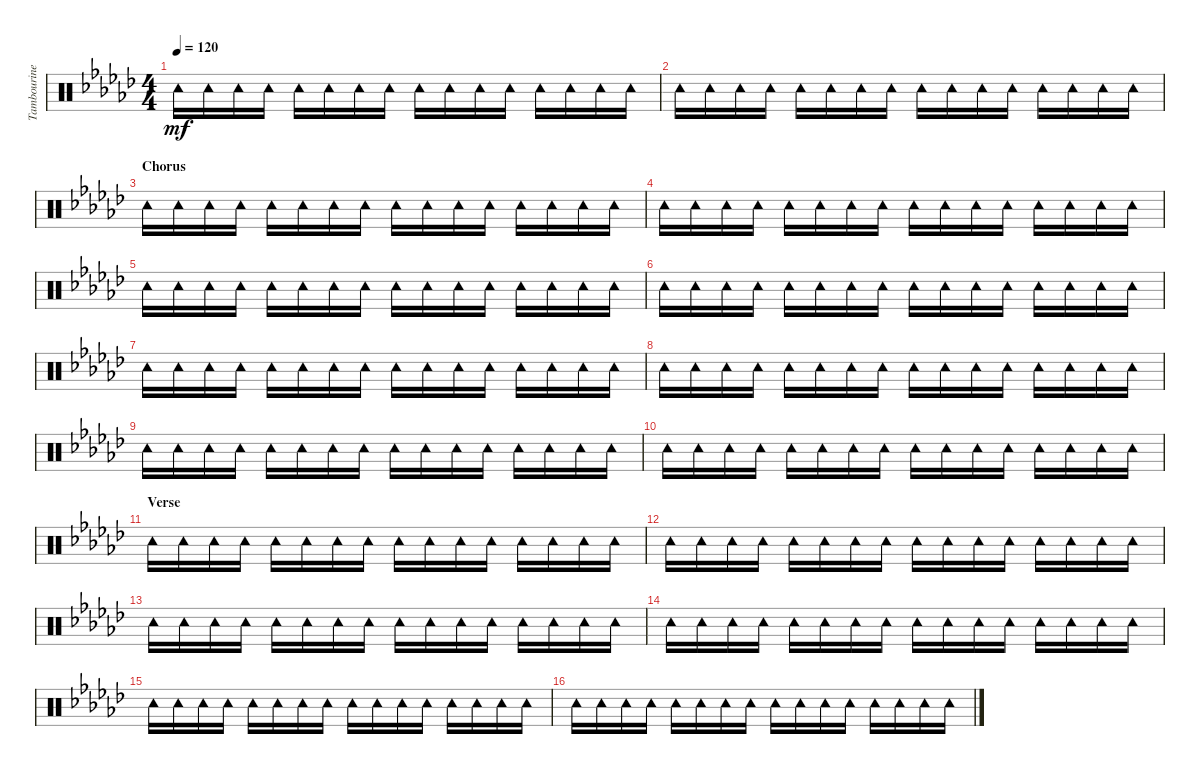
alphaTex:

\track ("Tambourine" "Tambourine") {instrument percussion}
\staff {score}
\articulation defaults
\ts (4 4)
\tempo 120
\clef neutral
\ks ebminor "Tambourine (hit)".16{dy mf} "Tambourine (hit)".16 "Tambourine (hit)".16 "Tambourine (hit)".16 "Tambourine (hit)".16 "Tambourine (hit)".16 "Tambourine (hit)".16 "Tambourine (hit)".16 "Tambourine (hit)".16 "Tambourine (hit)".16 "Tambourine (hit)".16 "Tambourine (hit)".16 "Tambourine (hit)".16 "Tambourine (hit)".16 "Tambourine (hit)".16 "Tambourine (hit)".16
|
"Tambourine (hit)".16 "Tambourine (hit)".16 "Tambourine (hit)".16 "Tambourine (hit)".16 "Tambourine (hit)".16 "Tambourine (hit)".16 "Tambourine (hit)".16 "Tambourine (hit)".16 "Tambourine (hit)".16 "Tambourine (hit)".16 "Tambourine (hit)".16 "Tambourine (hit)".16 "Tambourine (hit)".16 "Tambourine (hit)".16 "Tambourine (hit)".16 "Tambourine (hit)".16 |
\section ("" "Chorus")
"Tambourine (hit)".16 "Tambourine (hit)".16 "Tambourine (hit)".16 "Tambourine (hit)".16 "Tambourine (hit)".16 "Tambourine (hit)".16 "Tambourine (hit)".16 "Tambourine (hit)".16 "Tambourine (hit)".16 "Tambourine (hit)".16 "Tambourine (hit)".16 "Tambourine (hit)".16 "Tambourine (hit)".16 "Tambourine (hit)".16 "Tambourine (hit)".16 "Tambourine (hit)".16 |
"Tambourine (hit)".16 "Tambourine (hit)".16 "Tambourine (hit)".16 "Tambourine (hit)".16 "Tambourine (hit)".16 "Tambourine (hit)".16 "Tambourine (hit)".16 "Tambourine (hit)".16 "Tambourine (hit)".16 "Tambourine (hit)".16 "Tambourine (hit)".16 "Tambourine (hit)".16 "Tambourine (hit)".16 "Tambourine (hit)".16 "Tambourine (hit)".16 "Tambourine (hit)".16 |
"Tambourine (hit)".16 "Tambourine (hit)".16 "Tambourine (hit)".16 "Tambourine (hit)".16 "Tambourine (hit)".16 "Tambourine (hit)".16 "Tambourine (hit)".16 "Tambourine (hit)".16 "Tambourine (hit)".16 "Tambourine (hit)".16 "Tambourine (hit)".16 "Tambourine (hit)".16 "Tambourine (hit)".16 "Tambourine (hit)".16 "Tambourine (hit)".16 "Tambourine (hit)".16 |
"Tambourine (hit)".16 "Tambourine (hit)".16 "Tambourine (hit)".16 "Tambourine (hit)".16 "Tambourine (hit)".16 "Tambourine (hit)".16 "Tambourine (hit)".16 "Tambourine (hit)".16 "Tambourine (hit)".16 "Tambourine (hit)".16 "Tambourine (hit)".16 "Tambourine (hit)".16 "Tambourine (hit)".16 "Tambourine (hit)".16 "Tambourine (hit)".16 "Tambourine (hit)".16 |
"Tambourine (hit)".16 "Tambourine (hit)".16 "Tambourine (hit)".16 "Tambourine (hit)".16 "Tambourine (hit)".16 "Tambourine (hit)".16 "Tambourine (hit)".16 "Tambourine (hit)".16 "Tambourine (hit)".16 "Tambourine (hit)".16 "Tambourine (hit)".16 "Tambourine (hit)".16 "Tambourine (hit)".16 "Tambourine (hit)".16 "Tambourine (hit)".16 "Tambourine (hit)".16 |
"Tambourine (hit)".16 "Tambourine (hit)".16 "Tambourine (hit)".16 "Tambourine (hit)".16 "Tambourine (hit)".16 "Tambourine (hit)".16 "Tambourine (hit)".16 "Tambourine (hit)".16 "Tambourine (hit)".16 "Tambourine (hit)".16 "Tambourine (hit)".16 "Tambourine (hit)".16 "Tambourine (hit)".16 "Tambourine (hit)".16 "Tambourine (hit)".16 "Tambourine (hit)".16 |
"Tambourine (hit)".16 "Tambourine (hit)".16 "Tambourine (hit)".16 "Tambourine (hit)".16 "Tambourine (hit)".16 "Tambourine (hit)".16 "Tambourine (hit)".16 "Tambourine (hit)".16 "Tambourine (hit)".16 "Tambourine (hit)".16 "Tambourine (hit)".16 "Tambourine (hit)".16 "Tambourine (hit)".16 "Tambourine (hit)".16 "Tambourine (hit)".16 "Tambourine (hit)".16 |
"Tambourine (hit)".16 "Tambourine (hit)".16 "Tambourine (hit)".16 "Tambourine (hit)".16 "Tambourine (hit)".16 "Tambourine (hit)".16 "Tambourine (hit)".16 "Tambourine (hit)".16 "Tambourine (hit)".16 "Tambourine (hit)".16 "Tambourine (hit)".16 "Tambourine (hit)".16 "Tambourine (hit)".16 "Tambourine (hit)".16 "Tambourine (hit)".16 "Tambourine (hit)".16 |
\section ("" "Verse")
"Tambourine (hit)".16 "Tambourine (hit)".16 "Tambourine (hit)".16 "Tambourine (hit)".16 "Tambourine (hit)".16 "Tambourine (hit)".16 "Tambourine (hit)".16 "Tambourine (hit)".16 "Tambourine (hit)".16 "Tambourine (hit)".16 "Tambourine (hit)".16 "Tambourine (hit)".16 "Tambourine (hit)".16 "Tambourine (hit)".16 "Tambourine (hit)".16 "Tambourine (hit)".16 |
"Tambourine (hit)".16 "Tambourine (hit)".16 "Tambourine (hit)".16 "Tambourine (hit)".16 "Tambourine (hit)".16 "Tambourine (hit)".16 "Tambourine (hit)".16 "Tambourine (hit)".16 "Tambourine (hit)".16 "Tambourine (hit)".16 "Tambourine (hit)".16 "Tambourine (hit)".16 "Tambourine (hit)".16 "Tambourine (hit)".16 "Tambourine (hit)".16 "Tambourine (hit)".16 |
"Tambourine (hit)".16 "Tambourine (hit)".16 "Tambourine (hit)".16 "Tambourine (hit)".16 "Tambourine (hit)".16 "Tambourine (hit)".16 "Tambourine (hit)".16 "Tambourine (hit)".16 "Tambourine (hit)".16 "Tambourine (hit)".16 "Tambourine (hit)".16 "Tambourine (hit)".16 "Tambourine (hit)".16 "Tambourine (hit)".16 "Tambourine (hit)".16 "Tambourine (hit)".16 |
"Tambourine (hit)".16 "Tambourine (hit)".16 "Tambourine (hit)".16 "Tambourine (hit)".16 "Tambourine (hit)".16 "Tambourine (hit)".16 "Tambourine (hit)".16 "Tambourine (hit)".16 "Tambourine (hit)".16 "Tambourine (hit)".16 "Tambourine (hit)".16 "Tambourine (hit)".16 "Tambourine (hit)".16 "Tambourine (hit)".16 "Tambourine (hit)".16 "Tambourine (hit)".16 |
"Tambourine (hit)".16 "Tambourine (hit)".16 "Tambourine (hit)".16 "Tambourine (hit)".16 "Tambourine (hit)".16 "Tambourine (hit)".16 "Tambourine (hit)".16 "Tambourine (hit)".16 "Tambourine (hit)".16 "Tambourine (hit)".16 "Tambourine (hit)".16 "Tambourine (hit)".16 "Tambourine (hit)".16 "Tambourine (hit)".16 "Tambourine (hit)".16 "Tambourine (hit)".16 |
"Tambourine (hit)".16 "Tambourine (hit)".16 "Tambourine (hit)".16 "Tambourine (hit)".16 "Tambourine (hit)".16 "Tambourine (hit)".16 "Tambourine (hit)".16 "Tambourine (hit)".16 "Tambourine (hit)".16 "Tambourine (hit)".16 "Tambourine (hit)".16 "Tambourine (hit)".16 "Tambourine (hit)".16 "Tambourine (hit)".16 "Tambourine (hit)".16 "Tambourine (hit)".16
